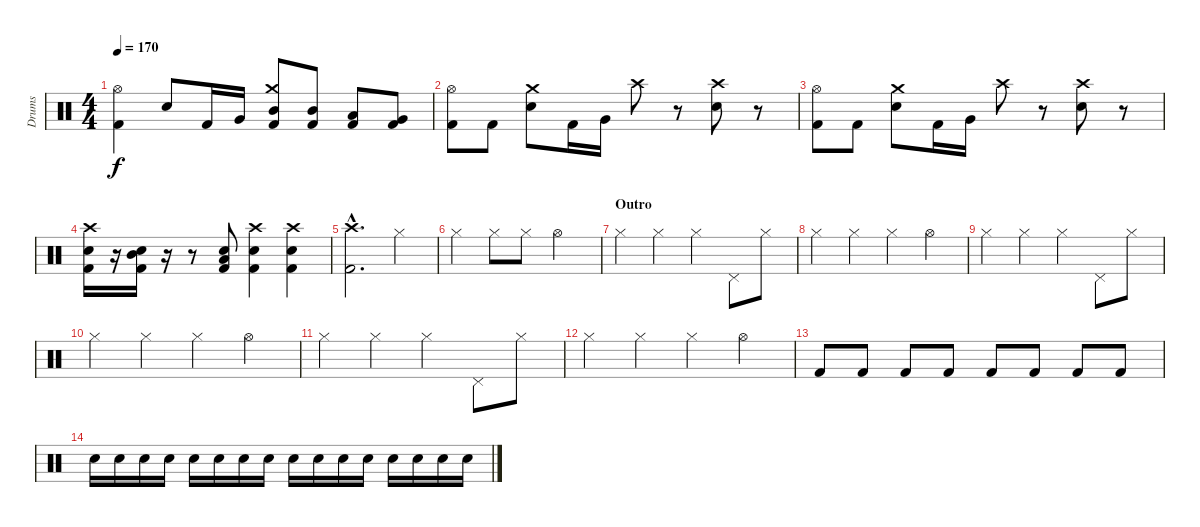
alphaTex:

\track ("Drums" "Drums") {instrument percussion}
\staff {score}
\articulation defaults
\ts (4 4)
\tempo 170
\clef neutral
\ks c
("Hi-Hat (open)" "Kick (hit) 2").4{dy f} "Electric Snare (hit)".8 "Kick (hit) 2".16 "Very Low Tom (hit)".16 ("Crash medium (hit)" "Mid Tom (hit)" "Kick (hit) 2").8 ("Mid Tom (hit)" "Kick (hit) 2").8 ("Low Tom (hit)" "Kick (hit) 2").8 ("Very Low Tom (hit)" "Kick (hit) 2").8 |
("Hi-Hat (open)" "Kick (hit) 2").8 "Kick (hit) 2".8 ("Crash medium (hit)" "Electric Snare (hit)").8 "Kick (hit) 2".16 "Very Low Tom (hit)".16 "Crash high (hit)".8 r.8 ("Crash high (hit)" "Electric Snare (hit)").8 r.8 |
("Hi-Hat (open)" "Kick (hit) 2").8 "Kick (hit) 2".8 ("Crash medium (hit)" "Electric Snare (hit)").8 "Kick (hit) 2".16 "Very Low Tom (hit)".16 "Crash high (hit)".8 r.8 ("Crash high (hit)" "Electric Snare (hit)").8 r.8 |
("Crash high (hit)" "Electric Snare (hit)" "Kick (hit) 2").16 r.16 ("Mid Tom (hit)" "Electric Snare (hit)" "Kick (hit) 2").16 r.16 r.8 ("Low Tom (hit)" "Electric Snare (hit)" "Kick (hit) 2").8 ("Crash high (hit)" "Electric Snare (hit)" "Kick (hit) 2").4 ("Crash high (hit)" "Electric Snare (hit)" "Kick (hit) 2").4 |
("Crash high (hit)"{hac} "Kick (hit) 2"{hac}).2{d} "Hi-Hat (closed)".4 |
"Hi-Hat (closed)".4 "Hi-Hat (closed)".8 "Hi-Hat (closed)".8 "Hi-Hat (open)".2 |
\section ("" "Outro")
"Hi-Hat (closed)".4 "Hi-Hat (closed)".4 "Hi-Hat (closed)".4 "Pedal Hi-Hat (hit)".8 "Hi-Hat (closed)".8 |
"Hi-Hat (closed)".4 "Hi-Hat (closed)".4 "Hi-Hat (closed)".4 "Hi-Hat (open)".4 |
"Hi-Hat (closed)".4 "Hi-Hat (closed)".4 "Hi-Hat (closed)".4 "Pedal Hi-Hat (hit)".8 "Hi-Hat (closed)".8 |
"Hi-Hat (closed)".4 "Hi-Hat (closed)".4 "Hi-Hat (closed)".4 "Hi-Hat (open)".4 |
"Hi-Hat (closed)".4 "Hi-Hat (closed)".4 "Hi-Hat (closed)".4 "Pedal Hi-Hat (hit)".8 "Hi-Hat (closed)".8 |
"Hi-Hat (closed)".4 "Hi-Hat (closed)".4 "Hi-Hat (closed)".4 "Hi-Hat (open)".4 |
"Kick (hit) 2".8 "Kick (hit) 2".8 "Kick (hit) 2".8 "Kick (hit) 2".8 "Kick (hit) 2".8 "Kick (hit) 2".8 "Kick (hit) 2".8 "Kick (hit) 2".8 |
"Electric Snare (hit)".16 "Electric Snare (hit)".16 "Electric Snare (hit)".16 "Electric Snare (hit)".16 "Electric Snare (hit)".16 "Electric Snare (hit)".16 "Electric Snare (hit)".16 "Electric Snare (hit)".16 "Electric Snare (hit)".16 "Electric Snare (hit)".16 "Electric Snare (hit)".16 "Electric Snare (hit)".16 "Electric Snare (hit)".16 "Electric Snare (hit)".16 "Electric Snare (hit)".16 "Electric Snare (hit)".16
